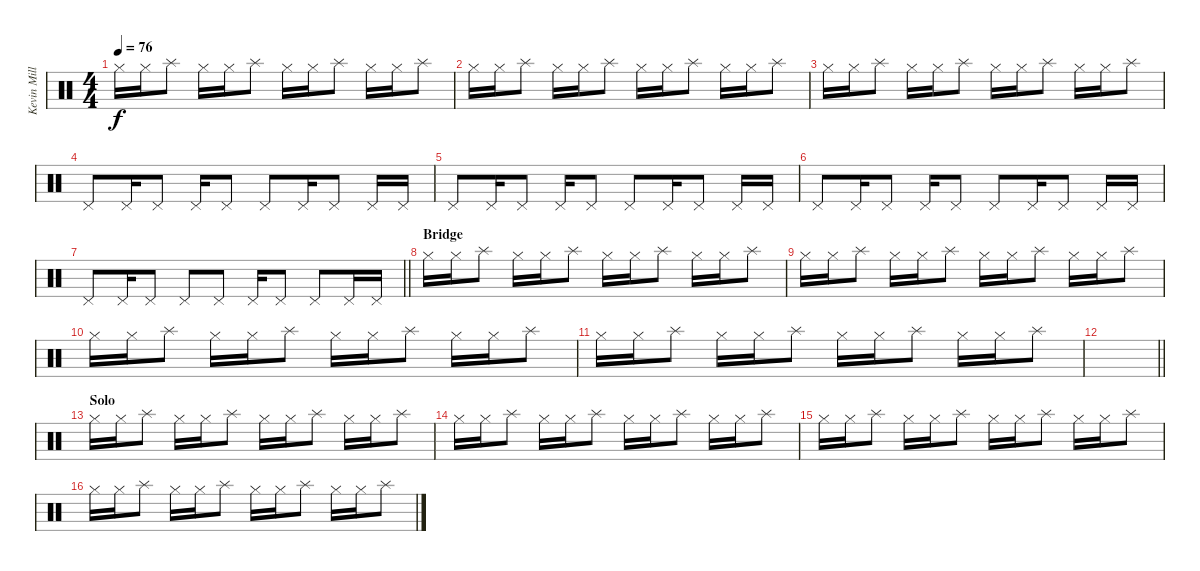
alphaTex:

\track ("Kevin Miller (Drums)" "Kevin Mill") {instrument percussion}
\staff {score}
\articulation defaults
\ts (4 4)
\tempo 76
\clef neutral
\ks c "Hi-Hat (closed)".16{dy f} "Hi-Hat (closed)".16 "Splash (hit)".8 "Hi-Hat (closed)".16 "Hi-Hat (closed)".16 "Splash (hit)".8 "Hi-Hat (closed)".16 "Hi-Hat (closed)".16 "Splash (hit)".8 "Hi-Hat (closed)".16 "Hi-Hat (closed)".16 "Splash (hit)".8
|
"Hi-Hat (closed)".16 "Hi-Hat (closed)".16 "Splash (hit)".8 "Hi-Hat (closed)".16 "Hi-Hat (closed)".16 "Splash (hit)".8 "Hi-Hat (closed)".16 "Hi-Hat (closed)".16 "Splash (hit)".8 "Hi-Hat (closed)".16 "Hi-Hat (closed)".16 "Splash (hit)".8 |
"Hi-Hat (closed)".16 "Hi-Hat (closed)".16 "Splash (hit)".8 "Hi-Hat (closed)".16 "Hi-Hat (closed)".16 "Splash (hit)".8 "Hi-Hat (closed)".16 "Hi-Hat (closed)".16 "Splash (hit)".8 "Hi-Hat (closed)".16 "Hi-Hat (closed)".16 "Splash (hit)".8 |
"Pedal Hi-Hat (hit)".8 "Pedal Hi-Hat (hit)".16 "Pedal Hi-Hat (hit)".8 "Pedal Hi-Hat (hit)".16 "Pedal Hi-Hat (hit)".8 "Pedal Hi-Hat (hit)".8 "Pedal Hi-Hat (hit)".16 "Pedal Hi-Hat (hit)".8 "Pedal Hi-Hat (hit)".16 "Pedal Hi-Hat (hit)".16 |
"Pedal Hi-Hat (hit)".8 "Pedal Hi-Hat (hit)".16 "Pedal Hi-Hat (hit)".8 "Pedal Hi-Hat (hit)".16 "Pedal Hi-Hat (hit)".8 "Pedal Hi-Hat (hit)".8 "Pedal Hi-Hat (hit)".16 "Pedal Hi-Hat (hit)".8 "Pedal Hi-Hat (hit)".16 "Pedal Hi-Hat (hit)".16 |
"Pedal Hi-Hat (hit)".8 "Pedal Hi-Hat (hit)".16 "Pedal Hi-Hat (hit)".8 "Pedal Hi-Hat (hit)".16 "Pedal Hi-Hat (hit)".8 "Pedal Hi-Hat (hit)".8 "Pedal Hi-Hat (hit)".16 "Pedal Hi-Hat (hit)".8 "Pedal Hi-Hat (hit)".16 "Pedal Hi-Hat (hit)".16 |
\barLineRight lightlight "Pedal Hi-Hat (hit)".8 "Pedal Hi-Hat (hit)".16 "Pedal Hi-Hat (hit)".8 "Pedal Hi-Hat (hit)".8 "Pedal Hi-Hat (hit)".8 "Pedal Hi-Hat (hit)".16 "Pedal Hi-Hat (hit)".8 "Pedal Hi-Hat (hit)".8 "Pedal Hi-Hat (hit)".16 "Pedal Hi-Hat (hit)".16
|
\section ("" "Bridge")
"Hi-Hat (closed)".16 "Hi-Hat (closed)".16 "Splash (hit)".8 "Hi-Hat (closed)".16 "Hi-Hat (closed)".16 "Splash (hit)".8 "Hi-Hat (closed)".16 "Hi-Hat (closed)".16 "Splash (hit)".8 "Hi-Hat (closed)".16 "Hi-Hat (closed)".16 "Splash (hit)".8 |
"Hi-Hat (closed)".16 "Hi-Hat (closed)".16 "Splash (hit)".8 "Hi-Hat (closed)".16 "Hi-Hat (closed)".16 "Splash (hit)".8 "Hi-Hat (closed)".16 "Hi-Hat (closed)".16 "Splash (hit)".8 "Hi-Hat (closed)".16 "Hi-Hat (closed)".16 "Splash (hit)".8 |
"Hi-Hat (closed)".16 "Hi-Hat (closed)".16 "Splash (hit)".8 "Hi-Hat (closed)".16 "Hi-Hat (closed)".16 "Splash (hit)".8 "Hi-Hat (closed)".16 "Hi-Hat (closed)".16 "Splash (hit)".8 "Hi-Hat (closed)".16 "Hi-Hat (closed)".16 "Splash (hit)".8 |
"Hi-Hat (closed)".16 "Hi-Hat (closed)".16 "Splash (hit)".8 "Hi-Hat (closed)".16 "Hi-Hat (closed)".16 "Splash (hit)".8 "Hi-Hat (closed)".16 "Hi-Hat (closed)".16 "Splash (hit)".8 "Hi-Hat (closed)".16 "Hi-Hat (closed)".16 "Splash (hit)".8 |
\barLineRight lightlight
|
\section ("" "Solo")
"Hi-Hat (closed)".16 "Hi-Hat (closed)".16 "Splash (hit)".8 "Hi-Hat (closed)".16 "Hi-Hat (closed)".16 "Splash (hit)".8 "Hi-Hat (closed)".16 "Hi-Hat (closed)".16 "Splash (hit)".8 "Hi-Hat (closed)".16 "Hi-Hat (closed)".16 "Splash (hit)".8 |
"Hi-Hat (closed)".16 "Hi-Hat (closed)".16 "Splash (hit)".8 "Hi-Hat (closed)".16 "Hi-Hat (closed)".16 "Splash (hit)".8 "Hi-Hat (closed)".16 "Hi-Hat (closed)".16 "Splash (hit)".8 "Hi-Hat (closed)".16 "Hi-Hat (closed)".16 "Splash (hit)".8 |
"Hi-Hat (closed)".16 "Hi-Hat (closed)".16 "Splash (hit)".8 "Hi-Hat (closed)".16 "Hi-Hat (closed)".16 "Splash (hit)".8 "Hi-Hat (closed)".16 "Hi-Hat (closed)".16 "Splash (hit)".8 "Hi-Hat (closed)".16 "Hi-Hat (closed)".16 "Splash (hit)".8 |
"Hi-Hat (closed)".16 "Hi-Hat (closed)".16 "Splash (hit)".8 "Hi-Hat (closed)".16 "Hi-Hat (closed)".16 "Splash (hit)".8 "Hi-Hat (closed)".16 "Hi-Hat (closed)".16 "Splash (hit)".8 "Hi-Hat (closed)".16 "Hi-Hat (closed)".16 "Splash (hit)".8
